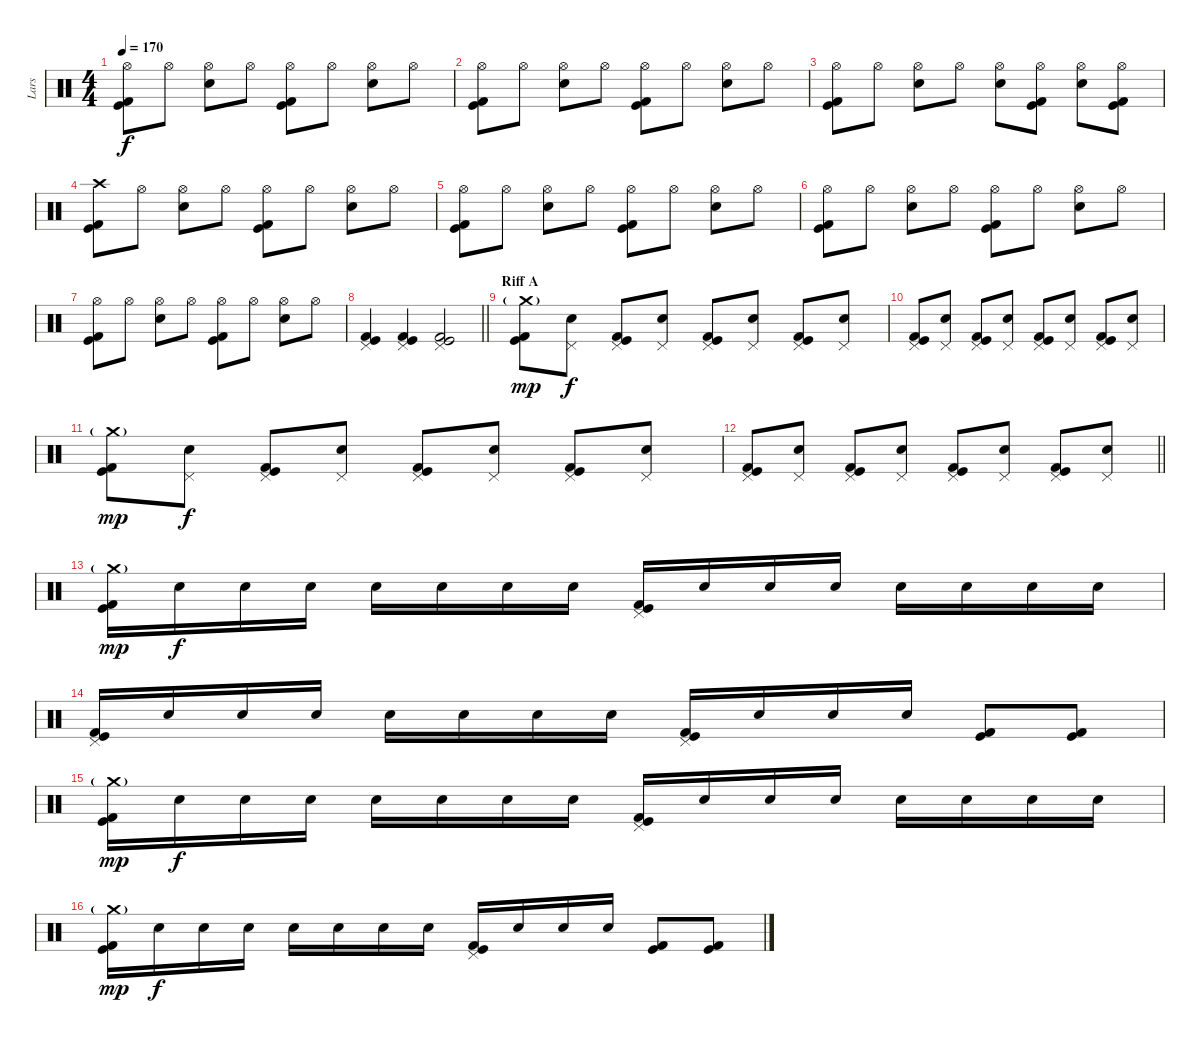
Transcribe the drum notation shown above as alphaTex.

\track ("Lars" "Lars") {instrument percussion}
\staff {score}
\articulation defaults
\ts (4 4)
\tempo 170
\clef neutral
\ks c
("Hi-Hat (open)" "Kick (hit)" "Kick (hit) 2").8{dy f} "Hi-Hat (open)".8 ("Hi-Hat (open)" "Electric Snare (hit)").8 "Hi-Hat (open)".8 ("Hi-Hat (open)" "Kick (hit)" "Kick (hit) 2").8 "Hi-Hat (open)".8 ("Hi-Hat (open)" "Electric Snare (hit)").8 "Hi-Hat (open)".8 |
("Hi-Hat (open)" "Kick (hit)" "Kick (hit) 2").8 "Hi-Hat (open)".8 ("Hi-Hat (open)" "Electric Snare (hit)").8 "Hi-Hat (open)".8 ("Hi-Hat (open)" "Kick (hit)" "Kick (hit) 2").8 "Hi-Hat (open)".8 ("Hi-Hat (open)" "Electric Snare (hit)").8 "Hi-Hat (open)".8 |
("Hi-Hat (open)" "Kick (hit)" "Kick (hit) 2").8 "Hi-Hat (open)".8 ("Hi-Hat (open)" "Electric Snare (hit)").8 "Hi-Hat (open)".8 ("Hi-Hat (open)" "Electric Snare (hit)").8 ("Hi-Hat (open)" "Kick (hit)" "Kick (hit) 2").8 ("Hi-Hat (open)" "Electric Snare (hit)").8 ("Hi-Hat (open)" "Kick (hit)" "Kick (hit) 2").8 |
("Crash high (hit)" "Kick (hit)" "Kick (hit) 2").8 "Hi-Hat (open)".8 ("Hi-Hat (open)" "Electric Snare (hit)").8 "Hi-Hat (open)".8 ("Hi-Hat (open)" "Kick (hit)" "Kick (hit) 2").8 "Hi-Hat (open)".8 ("Hi-Hat (open)" "Electric Snare (hit)").8 "Hi-Hat (open)".8 |
("Hi-Hat (open)" "Kick (hit)" "Kick (hit) 2").8 "Hi-Hat (open)".8 ("Hi-Hat (open)" "Electric Snare (hit)").8 "Hi-Hat (open)".8 ("Hi-Hat (open)" "Kick (hit)" "Kick (hit) 2").8 "Hi-Hat (open)".8 ("Hi-Hat (open)" "Electric Snare (hit)").8 "Hi-Hat (open)".8 |
("Hi-Hat (open)" "Kick (hit)" "Kick (hit) 2").8 "Hi-Hat (open)".8 ("Hi-Hat (open)" "Electric Snare (hit)").8 "Hi-Hat (open)".8 ("Hi-Hat (open)" "Kick (hit)" "Kick (hit) 2").8 "Hi-Hat (open)".8 ("Hi-Hat (open)" "Electric Snare (hit)").8 "Hi-Hat (open)".8 |
("Hi-Hat (open)" "Kick (hit)" "Kick (hit) 2").8 "Hi-Hat (open)".8 ("Hi-Hat (open)" "Electric Snare (hit)").8 "Hi-Hat (open)".8 ("Hi-Hat (open)" "Kick (hit)" "Kick (hit) 2").8 "Hi-Hat (open)".8 ("Hi-Hat (open)" "Electric Snare (hit)").8 "Hi-Hat (open)".8 |
\barLineRight lightlight
("Pedal Hi-Hat (hit)" "Kick (hit)" "Kick (hit) 2").4 ("Pedal Hi-Hat (hit)" "Kick (hit)" "Kick (hit) 2").4 ("Pedal Hi-Hat (hit)" "Kick (hit)" "Kick (hit) 2").2 |
\section ("" "Riff A")
("Crash medium (hit)"{g} "Kick (hit)" "Kick (hit) 2").8{dy mp} ("Pedal Hi-Hat (hit)" "Electric Snare (hit)").8{dy f} ("Pedal Hi-Hat (hit)" "Kick (hit)" "Kick (hit) 2").8 ("Pedal Hi-Hat (hit)" "Electric Snare (hit)").8 ("Pedal Hi-Hat (hit)" "Kick (hit)" "Kick (hit) 2").8 ("Pedal Hi-Hat (hit)" "Electric Snare (hit)").8 ("Pedal Hi-Hat (hit)" "Kick (hit)" "Kick (hit) 2").8 ("Pedal Hi-Hat (hit)" "Electric Snare (hit)").8 |
("Pedal Hi-Hat (hit)" "Kick (hit)" "Kick (hit) 2").8 ("Pedal Hi-Hat (hit)" "Electric Snare (hit)").8 ("Pedal Hi-Hat (hit)" "Kick (hit)" "Kick (hit) 2").8 ("Pedal Hi-Hat (hit)" "Electric Snare (hit)").8 ("Pedal Hi-Hat (hit)" "Kick (hit)" "Kick (hit) 2").8 ("Pedal Hi-Hat (hit)" "Electric Snare (hit)").8 ("Pedal Hi-Hat (hit)" "Kick (hit)" "Kick (hit) 2").8 ("Pedal Hi-Hat (hit)" "Electric Snare (hit)").8 |
("Crash medium (hit)"{g} "Kick (hit)" "Kick (hit) 2").8{dy mp} ("Pedal Hi-Hat (hit)" "Electric Snare (hit)").8{dy f} ("Pedal Hi-Hat (hit)" "Kick (hit)" "Kick (hit) 2").8 ("Pedal Hi-Hat (hit)" "Electric Snare (hit)").8 ("Pedal Hi-Hat (hit)" "Kick (hit)" "Kick (hit) 2").8 ("Pedal Hi-Hat (hit)" "Electric Snare (hit)").8 ("Pedal Hi-Hat (hit)" "Kick (hit)" "Kick (hit) 2").8 ("Pedal Hi-Hat (hit)" "Electric Snare (hit)").8 |
\barLineRight lightlight
("Pedal Hi-Hat (hit)" "Kick (hit)" "Kick (hit) 2").8 ("Pedal Hi-Hat (hit)" "Electric Snare (hit)").8 ("Pedal Hi-Hat (hit)" "Kick (hit)" "Kick (hit) 2").8 ("Pedal Hi-Hat (hit)" "Electric Snare (hit)").8 ("Pedal Hi-Hat (hit)" "Kick (hit)" "Kick (hit) 2").8 ("Pedal Hi-Hat (hit)" "Electric Snare (hit)").8 ("Pedal Hi-Hat (hit)" "Kick (hit)" "Kick (hit) 2").8 ("Pedal Hi-Hat (hit)" "Electric Snare (hit)").8 |
\section ("" "")
("Crash medium (hit)"{g} "Kick (hit)" "Kick (hit) 2").16{dy mp} "Electric Snare (hit)".16{dy f} "Electric Snare (hit)".16 "Electric Snare (hit)".16 "Electric Snare (hit)".16 "Electric Snare (hit)".16 "Electric Snare (hit)".16 "Electric Snare (hit)".16 ("Pedal Hi-Hat (hit)" "Kick (hit)" "Kick (hit) 2").16 "Electric Snare (hit)".16 "Electric Snare (hit)".16 "Electric Snare (hit)".16 "Electric Snare (hit)".16 "Electric Snare (hit)".16 "Electric Snare (hit)".16 "Electric Snare (hit)".16 |
("Pedal Hi-Hat (hit)" "Kick (hit)" "Kick (hit) 2").16 "Electric Snare (hit)".16 "Electric Snare (hit)".16 "Electric Snare (hit)".16 "Electric Snare (hit)".16 "Electric Snare (hit)".16 "Electric Snare (hit)".16 "Electric Snare (hit)".16 ("Pedal Hi-Hat (hit)" "Kick (hit)" "Kick (hit) 2").16 "Electric Snare (hit)".16 "Electric Snare (hit)".16 "Electric Snare (hit)".16 ("Kick (hit)" "Kick (hit) 2").8 ("Kick (hit)" "Kick (hit) 2").8 |
("Crash medium (hit)"{g} "Kick (hit)" "Kick (hit) 2").16{dy mp} "Electric Snare (hit)".16{dy f} "Electric Snare (hit)".16 "Electric Snare (hit)".16 "Electric Snare (hit)".16 "Electric Snare (hit)".16 "Electric Snare (hit)".16 "Electric Snare (hit)".16 ("Pedal Hi-Hat (hit)" "Kick (hit)" "Kick (hit) 2").16 "Electric Snare (hit)".16 "Electric Snare (hit)".16 "Electric Snare (hit)".16 "Electric Snare (hit)".16 "Electric Snare (hit)".16 "Electric Snare (hit)".16 "Electric Snare (hit)".16 |
("Crash medium (hit)"{g} "Kick (hit)" "Kick (hit) 2").16{dy mp} "Electric Snare (hit)".16{dy f} "Electric Snare (hit)".16 "Electric Snare (hit)".16 "Electric Snare (hit)".16 "Electric Snare (hit)".16 "Electric Snare (hit)".16 "Electric Snare (hit)".16 ("Pedal Hi-Hat (hit)" "Kick (hit)" "Kick (hit) 2").16 "Electric Snare (hit)".16 "Electric Snare (hit)".16 "Electric Snare (hit)".16 ("Kick (hit)" "Kick (hit) 2").8 ("Kick (hit)" "Kick (hit) 2").8
